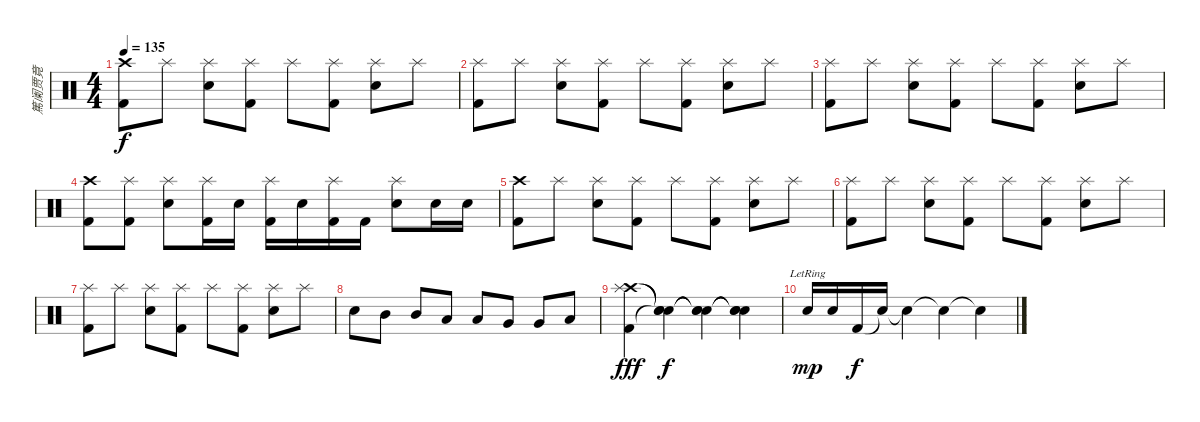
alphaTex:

\track ("篤阑贾竟" "篤阑贾竟") {instrument percussion}
\staff {score}
\articulation defaults
\ts (4 4)
\tempo 135
\clef neutral
\ks c
("Crash high (hit)" "Kick (hit) 2").8{dy f} "Splash (hit)".8 ("Splash (hit)" "Electric Snare (hit)").8 ("Splash (hit)" "Kick (hit) 2").8 "Splash (hit)".8 ("Splash (hit)" "Kick (hit) 2").8 ("Splash (hit)" "Electric Snare (hit)").8 "Splash (hit)".8 |
("Splash (hit)" "Kick (hit) 2").8 "Splash (hit)".8 ("Splash (hit)" "Electric Snare (hit)").8 ("Splash (hit)" "Kick (hit) 2").8 "Splash (hit)".8 ("Splash (hit)" "Kick (hit) 2").8 ("Splash (hit)" "Electric Snare (hit)").8 "Splash (hit)".8 |
("Splash (hit)" "Kick (hit) 2").8 "Splash (hit)".8 ("Splash (hit)" "Electric Snare (hit)").8 ("Splash (hit)" "Kick (hit) 2").8 "Splash (hit)".8 ("Splash (hit)" "Kick (hit) 2").8 ("Splash (hit)" "Electric Snare (hit)").8 "Splash (hit)".8 |
("Crash high (hit)" "Kick (hit) 2").8 ("Splash (hit)" "Kick (hit) 2").8 ("Splash (hit)" "Electric Snare (hit)").8 ("Splash (hit)" "Kick (hit) 2").16 "Electric Snare (hit)".16 ("Splash (hit)" "Kick (hit) 2").16 "Electric Snare (hit)".16 ("Splash (hit)" "Kick (hit) 2").16 "Kick (hit) 2".16 ("Splash (hit)" "Electric Snare (hit)").8 "Electric Snare (hit)".16 "Electric Snare (hit)".16 |
("Crash high (hit)" "Kick (hit) 2").8 "Splash (hit)".8 ("Splash (hit)" "Electric Snare (hit)").8 ("Splash (hit)" "Kick (hit) 2").8 "Splash (hit)".8 ("Splash (hit)" "Kick (hit) 2").8 ("Splash (hit)" "Electric Snare (hit)").8 "Splash (hit)".8 |
("Splash (hit)" "Kick (hit) 2").8 "Splash (hit)".8 ("Splash (hit)" "Electric Snare (hit)").8 ("Splash (hit)" "Kick (hit) 2").8 "Splash (hit)".8 ("Splash (hit)" "Kick (hit) 2").8 ("Splash (hit)" "Electric Snare (hit)").8 "Splash (hit)".8 |
("Splash (hit)" "Kick (hit) 2").8 "Splash (hit)".8 ("Splash (hit)" "Electric Snare (hit)").8 ("Splash (hit)" "Kick (hit) 2").8 "Splash (hit)".8 ("Splash (hit)" "Kick (hit) 2").8 ("Splash (hit)" "Electric Snare (hit)").8 "Splash (hit)".8 |
"Electric Snare (hit)".8 "Mid Tom (hit)".8 "Mid Tom (hit)".8 "Low Tom (hit)".8 "Low Tom (hit)".8 "Very Low Tom (hit)".8 "Very Low Tom (hit)".8 "Low Floor Tom (hit)".8 |
("Crash high (hit)" "Kick (hit) 2" "Splash (hit)").4{dy fff} ("Snare (hit)"{t} "Snare (hit)"{t} "Snare (hit)"{t}).4{dy f} ("Snare (hit)"{t} "Snare (hit)"{t} "Snare (hit)"{t}).4 ("Snare (hit)"{t} "Snare (hit)"{t} "Snare (hit)"{t}).4 |
"Electric Snare (hit)"{lr}.16{dy mp} "Electric Snare (hit)"{lr}.16 "Kick (hit) 2".16{dy f} "Snare (hit)"{t}.16 "Snare (hit)"{t}.4 "Snare (hit)"{t}.4 "Snare (hit)"{t}.4
